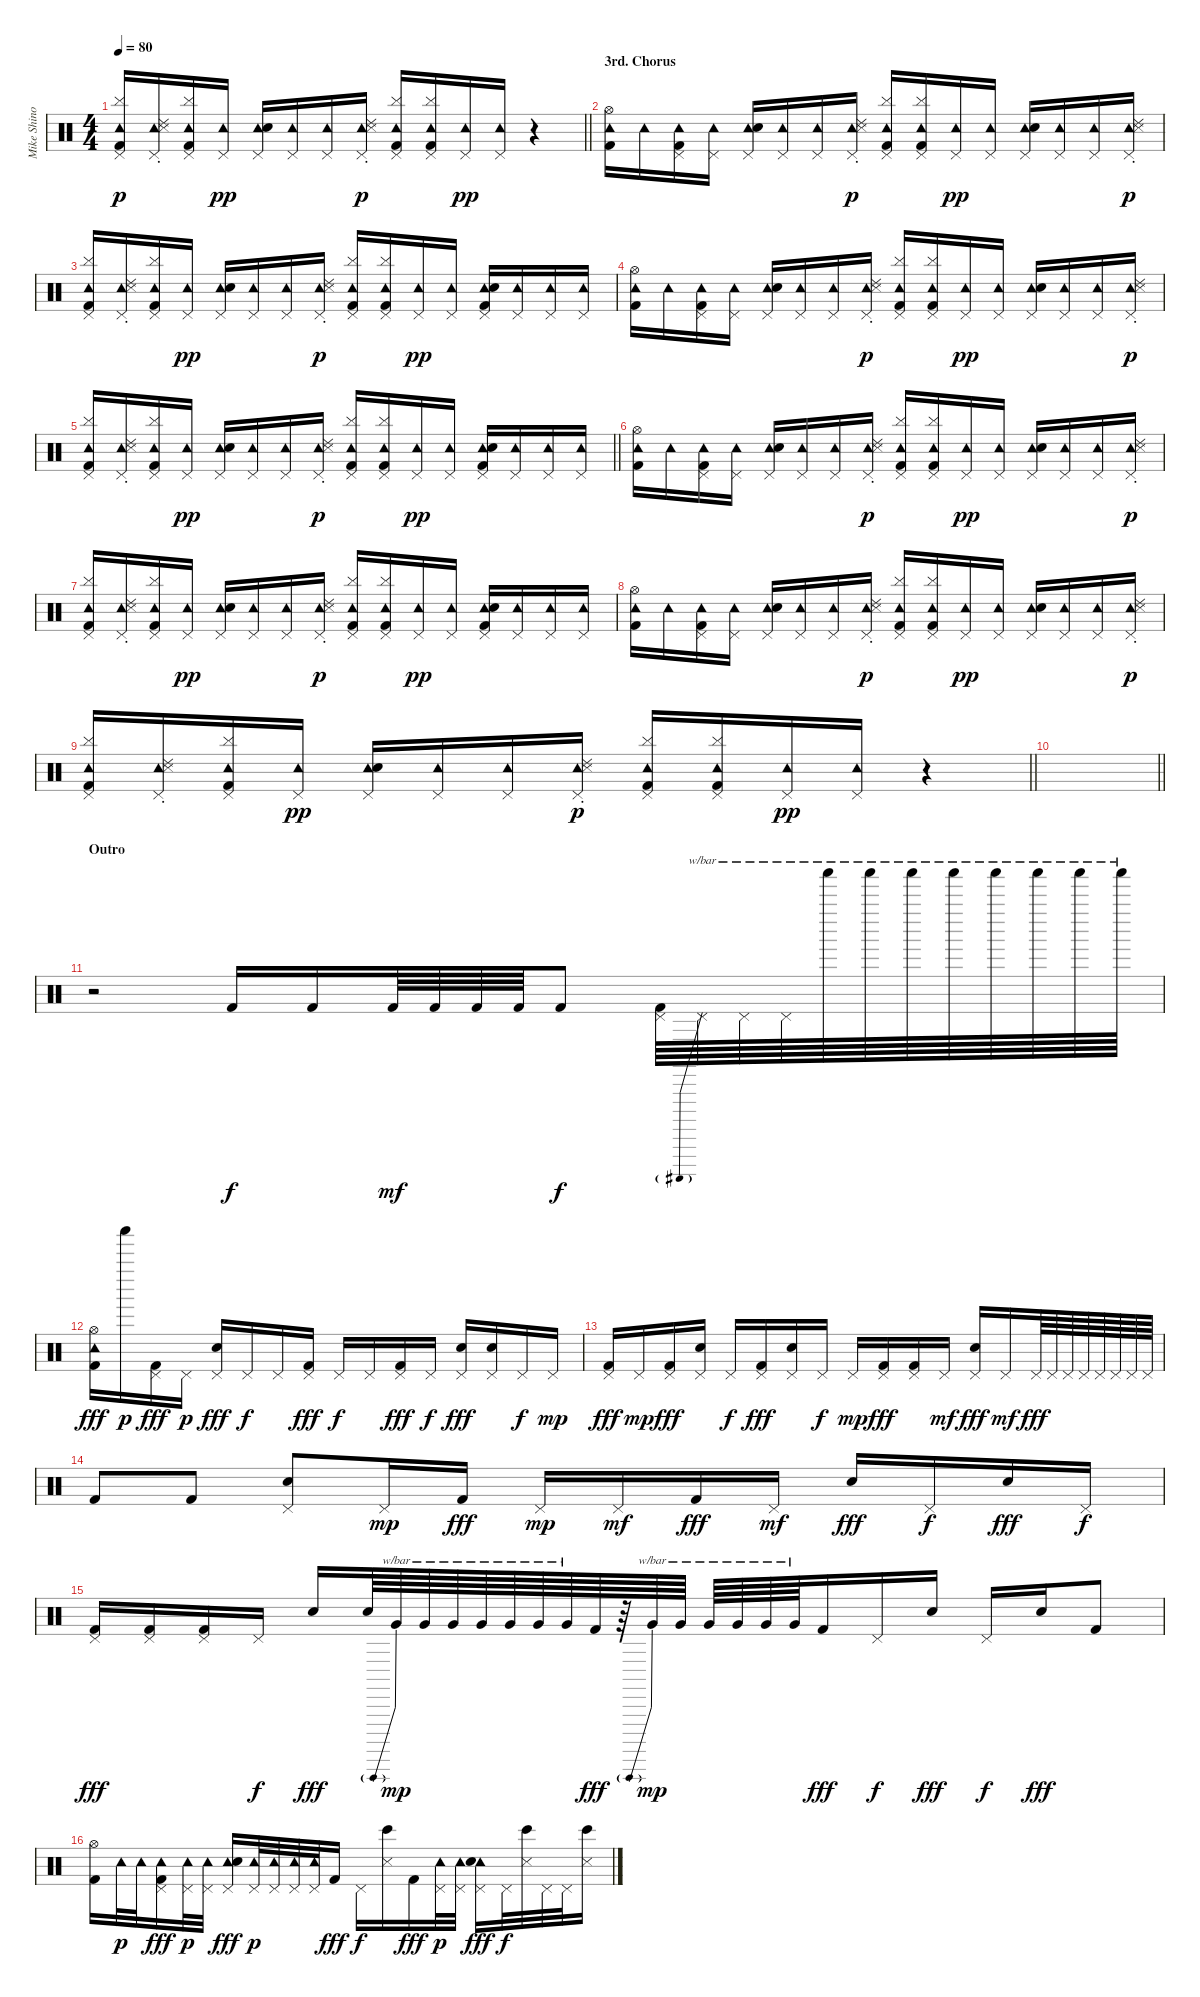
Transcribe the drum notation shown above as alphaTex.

\track ("Mike Shinoda - Percussion" "Mike Shino") {instrument percussion}
\staff {score}
\articulation defaults
\ts (4 4)
\tempo 80
\clef neutral
\barLineRight lightlight
\ks c
("Tambourine (hit)" "Pedal Hi-Hat (hit)" "Cymbal (hit)" "Kick (hit) 2").16{dy p} ("Tambourine (hit)" "Pedal Hi-Hat (hit)" "Snare (side stick) 3" "Ride (choke) 2").16 ("Tambourine (hit)" "Pedal Hi-Hat (hit)" "Cymbal (hit)" "Kick (hit) 2").16 ("Tambourine (hit)" "Pedal Hi-Hat (hit)").16{dy pp} ("Tambourine (hit)" "Pedal Hi-Hat (hit)" "Electric Snare (hit)").16 ("Tambourine (hit)" "Pedal Hi-Hat (hit)").16 ("Tambourine (hit)" "Pedal Hi-Hat (hit)").16 ("Tambourine (hit)" "Pedal Hi-Hat (hit)" "Snare (side stick) 3" "Ride (choke) 2").16{dy p} ("Tambourine (hit)" "Pedal Hi-Hat (hit)" "Cymbal (hit)" "Kick (hit) 2").16 ("Tambourine (hit)" "Pedal Hi-Hat (hit)" "Cymbal (hit)" "Kick (hit) 2").16 ("Tambourine (hit)" "Pedal Hi-Hat (hit)").16{dy pp} ("Tambourine (hit)" "Pedal Hi-Hat (hit)").16 r.4 |
\section ("" "3rd. Chorus")
("Tambourine (hit)" "Hi-Hat (open)" "Kick (hit) 2").16 "Tambourine (hit)".16 ("Tambourine (hit)" "Pedal Hi-Hat (hit)" "Kick (hit) 2").16 ("Tambourine (hit)" "Pedal Hi-Hat (hit)").16 ("Tambourine (hit)" "Pedal Hi-Hat (hit)" "Electric Snare (hit)").16 ("Tambourine (hit)" "Pedal Hi-Hat (hit)").16 ("Tambourine (hit)" "Pedal Hi-Hat (hit)").16 ("Tambourine (hit)" "Pedal Hi-Hat (hit)" "Snare (side stick) 3" "Ride (choke) 2").16{dy p} ("Tambourine (hit)" "Pedal Hi-Hat (hit)" "Cymbal (hit)" "Kick (hit) 2").16 ("Tambourine (hit)" "Pedal Hi-Hat (hit)" "Cymbal (hit)" "Kick (hit) 2").16 ("Tambourine (hit)" "Pedal Hi-Hat (hit)").16{dy pp} ("Tambourine (hit)" "Pedal Hi-Hat (hit)").16 ("Tambourine (hit)" "Pedal Hi-Hat (hit)" "Electric Snare (hit)").16 ("Tambourine (hit)" "Pedal Hi-Hat (hit)").16 ("Tambourine (hit)" "Pedal Hi-Hat (hit)").16 ("Tambourine (hit)" "Pedal Hi-Hat (hit)" "Snare (side stick) 3" "Ride (choke) 2").16{dy p} |
("Tambourine (hit)" "Pedal Hi-Hat (hit)" "Cymbal (hit)" "Kick (hit) 2").16 ("Tambourine (hit)" "Pedal Hi-Hat (hit)" "Snare (side stick) 3" "Ride (choke) 2").16 ("Tambourine (hit)" "Pedal Hi-Hat (hit)" "Cymbal (hit)" "Kick (hit) 2").16 ("Tambourine (hit)" "Pedal Hi-Hat (hit)").16{dy pp} ("Tambourine (hit)" "Pedal Hi-Hat (hit)" "Electric Snare (hit)").16 ("Tambourine (hit)" "Pedal Hi-Hat (hit)").16 ("Tambourine (hit)" "Pedal Hi-Hat (hit)").16 ("Tambourine (hit)" "Pedal Hi-Hat (hit)" "Snare (side stick) 3" "Ride (choke) 2").16{dy p} ("Tambourine (hit)" "Pedal Hi-Hat (hit)" "Cymbal (hit)" "Kick (hit) 2").16 ("Tambourine (hit)" "Pedal Hi-Hat (hit)" "Cymbal (hit)" "Kick (hit) 2").16 ("Tambourine (hit)" "Pedal Hi-Hat (hit)").16{dy pp} ("Tambourine (hit)" "Pedal Hi-Hat (hit)").16 ("Tambourine (hit)" "Pedal Hi-Hat (hit)" "Electric Snare (hit)" "Kick (hit) 2").16 ("Tambourine (hit)" "Pedal Hi-Hat (hit)").16 ("Tambourine (hit)" "Pedal Hi-Hat (hit)").16 ("Tambourine (hit)" "Pedal Hi-Hat (hit)").16 |
("Tambourine (hit)" "Hi-Hat (open)" "Kick (hit) 2").16 "Tambourine (hit)".16 ("Tambourine (hit)" "Pedal Hi-Hat (hit)" "Kick (hit) 2").16 ("Tambourine (hit)" "Pedal Hi-Hat (hit)").16 ("Tambourine (hit)" "Pedal Hi-Hat (hit)" "Electric Snare (hit)").16 ("Tambourine (hit)" "Pedal Hi-Hat (hit)").16 ("Tambourine (hit)" "Pedal Hi-Hat (hit)").16 ("Tambourine (hit)" "Pedal Hi-Hat (hit)" "Snare (side stick) 3" "Ride (choke) 2").16{dy p} ("Tambourine (hit)" "Pedal Hi-Hat (hit)" "Cymbal (hit)" "Kick (hit) 2").16 ("Tambourine (hit)" "Pedal Hi-Hat (hit)" "Cymbal (hit)" "Kick (hit) 2").16 ("Tambourine (hit)" "Pedal Hi-Hat (hit)").16{dy pp} ("Tambourine (hit)" "Pedal Hi-Hat (hit)").16 ("Tambourine (hit)" "Pedal Hi-Hat (hit)" "Electric Snare (hit)").16 ("Tambourine (hit)" "Pedal Hi-Hat (hit)").16 ("Tambourine (hit)" "Pedal Hi-Hat (hit)").16 ("Tambourine (hit)" "Pedal Hi-Hat (hit)" "Snare (side stick) 3" "Ride (choke) 2").16{dy p} |
\barLineRight lightlight
("Tambourine (hit)" "Pedal Hi-Hat (hit)" "Cymbal (hit)" "Kick (hit) 2").16 ("Tambourine (hit)" "Pedal Hi-Hat (hit)" "Snare (side stick) 3" "Ride (choke) 2").16 ("Tambourine (hit)" "Pedal Hi-Hat (hit)" "Cymbal (hit)" "Kick (hit) 2").16 ("Tambourine (hit)" "Pedal Hi-Hat (hit)").16{dy pp} ("Tambourine (hit)" "Pedal Hi-Hat (hit)" "Electric Snare (hit)").16 ("Tambourine (hit)" "Pedal Hi-Hat (hit)").16 ("Tambourine (hit)" "Pedal Hi-Hat (hit)").16 ("Tambourine (hit)" "Pedal Hi-Hat (hit)" "Snare (side stick) 3" "Ride (choke) 2").16{dy p} ("Tambourine (hit)" "Pedal Hi-Hat (hit)" "Cymbal (hit)" "Kick (hit) 2").16 ("Tambourine (hit)" "Pedal Hi-Hat (hit)" "Cymbal (hit)" "Kick (hit) 2").16 ("Tambourine (hit)" "Pedal Hi-Hat (hit)").16{dy pp} ("Tambourine (hit)" "Pedal Hi-Hat (hit)").16 ("Tambourine (hit)" "Pedal Hi-Hat (hit)" "Electric Snare (hit)" "Kick (hit) 2").16 ("Tambourine (hit)" "Pedal Hi-Hat (hit)").16 ("Tambourine (hit)" "Pedal Hi-Hat (hit)").16 ("Tambourine (hit)" "Pedal Hi-Hat (hit)").16 |
("Tambourine (hit)" "Hi-Hat (open)" "Kick (hit) 2").16 "Tambourine (hit)".16 ("Tambourine (hit)" "Pedal Hi-Hat (hit)" "Kick (hit) 2").16 ("Tambourine (hit)" "Pedal Hi-Hat (hit)").16 ("Tambourine (hit)" "Pedal Hi-Hat (hit)" "Electric Snare (hit)").16 ("Tambourine (hit)" "Pedal Hi-Hat (hit)").16 ("Tambourine (hit)" "Pedal Hi-Hat (hit)").16 ("Tambourine (hit)" "Pedal Hi-Hat (hit)" "Snare (side stick) 3" "Ride (choke) 2").16{dy p} ("Tambourine (hit)" "Pedal Hi-Hat (hit)" "Cymbal (hit)" "Kick (hit) 2").16 ("Tambourine (hit)" "Pedal Hi-Hat (hit)" "Cymbal (hit)" "Kick (hit) 2").16 ("Tambourine (hit)" "Pedal Hi-Hat (hit)").16{dy pp} ("Tambourine (hit)" "Pedal Hi-Hat (hit)").16 ("Tambourine (hit)" "Pedal Hi-Hat (hit)" "Electric Snare (hit)").16 ("Tambourine (hit)" "Pedal Hi-Hat (hit)").16 ("Tambourine (hit)" "Pedal Hi-Hat (hit)").16 ("Tambourine (hit)" "Pedal Hi-Hat (hit)" "Snare (side stick) 3" "Ride (choke) 2").16{dy p} |
("Tambourine (hit)" "Pedal Hi-Hat (hit)" "Cymbal (hit)" "Kick (hit) 2").16 ("Tambourine (hit)" "Pedal Hi-Hat (hit)" "Snare (side stick) 3" "Ride (choke) 2").16 ("Tambourine (hit)" "Pedal Hi-Hat (hit)" "Cymbal (hit)" "Kick (hit) 2").16 ("Tambourine (hit)" "Pedal Hi-Hat (hit)").16{dy pp} ("Tambourine (hit)" "Pedal Hi-Hat (hit)" "Electric Snare (hit)").16 ("Tambourine (hit)" "Pedal Hi-Hat (hit)").16 ("Tambourine (hit)" "Pedal Hi-Hat (hit)").16 ("Tambourine (hit)" "Pedal Hi-Hat (hit)" "Snare (side stick) 3" "Ride (choke) 2").16{dy p} ("Tambourine (hit)" "Pedal Hi-Hat (hit)" "Cymbal (hit)" "Kick (hit) 2").16 ("Tambourine (hit)" "Pedal Hi-Hat (hit)" "Cymbal (hit)" "Kick (hit) 2").16 ("Tambourine (hit)" "Pedal Hi-Hat (hit)").16{dy pp} ("Tambourine (hit)" "Pedal Hi-Hat (hit)").16 ("Tambourine (hit)" "Pedal Hi-Hat (hit)" "Electric Snare (hit)" "Kick (hit) 2").16 ("Tambourine (hit)" "Pedal Hi-Hat (hit)").16 ("Tambourine (hit)" "Pedal Hi-Hat (hit)").16 ("Tambourine (hit)" "Pedal Hi-Hat (hit)").16 |
("Tambourine (hit)" "Hi-Hat (open)" "Kick (hit) 2").16 "Tambourine (hit)".16 ("Tambourine (hit)" "Pedal Hi-Hat (hit)" "Kick (hit) 2").16 ("Tambourine (hit)" "Pedal Hi-Hat (hit)").16 ("Tambourine (hit)" "Pedal Hi-Hat (hit)" "Electric Snare (hit)").16 ("Tambourine (hit)" "Pedal Hi-Hat (hit)").16 ("Tambourine (hit)" "Pedal Hi-Hat (hit)").16 ("Tambourine (hit)" "Pedal Hi-Hat (hit)" "Snare (side stick) 3" "Ride (choke) 2").16{dy p} ("Tambourine (hit)" "Pedal Hi-Hat (hit)" "Cymbal (hit)" "Kick (hit) 2").16 ("Tambourine (hit)" "Pedal Hi-Hat (hit)" "Cymbal (hit)" "Kick (hit) 2").16 ("Tambourine (hit)" "Pedal Hi-Hat (hit)").16{dy pp} ("Tambourine (hit)" "Pedal Hi-Hat (hit)").16 ("Tambourine (hit)" "Pedal Hi-Hat (hit)" "Electric Snare (hit)").16 ("Tambourine (hit)" "Pedal Hi-Hat (hit)").16 ("Tambourine (hit)" "Pedal Hi-Hat (hit)").16 ("Tambourine (hit)" "Pedal Hi-Hat (hit)" "Snare (side stick) 3" "Ride (choke) 2").16{dy p} |
\barLineRight lightlight
("Tambourine (hit)" "Pedal Hi-Hat (hit)" "Cymbal (hit)" "Kick (hit) 2").16 ("Tambourine (hit)" "Pedal Hi-Hat (hit)" "Snare (side stick) 3" "Ride (choke) 2").16 ("Tambourine (hit)" "Pedal Hi-Hat (hit)" "Cymbal (hit)" "Kick (hit) 2").16 ("Tambourine (hit)" "Pedal Hi-Hat (hit)").16{dy pp} ("Tambourine (hit)" "Pedal Hi-Hat (hit)" "Electric Snare (hit)").16 ("Tambourine (hit)" "Pedal Hi-Hat (hit)").16 ("Tambourine (hit)" "Pedal Hi-Hat (hit)").16 ("Tambourine (hit)" "Pedal Hi-Hat (hit)" "Snare (side stick) 3" "Ride (choke) 2").16{dy p} ("Tambourine (hit)" "Pedal Hi-Hat (hit)" "Cymbal (hit)" "Kick (hit) 2").16 ("Tambourine (hit)" "Pedal Hi-Hat (hit)" "Cymbal (hit)" "Kick (hit) 2").16 ("Tambourine (hit)" "Pedal Hi-Hat (hit)").16{dy pp} ("Tambourine (hit)" "Pedal Hi-Hat (hit)").16 r.4 |
\barLineRight lightlight
|
\section ("" "Outro")
r.2 "Kick (hit) 2".16{dy f} "Kick (hit) 2".16 "Kick (hit) 2".64{dy mf} "Kick (hit) 2".64 "Kick (hit) 2".64 "Kick (hit) 2".64 "Kick (hit) 2".8{dy f} ("Pedal Hi-Hat (hit)" "Kick (hit) 2").64 "Pedal Hi-Hat (hit)".64{tbe (predive default 0 12 60 12)} "Pedal Hi-Hat (hit)".64{tbe (hold default 0 12 60 12)} "Pedal Hi-Hat (hit)".64{tbe (hold default 0 12 60 12)} "Shaker (hit)".64{tbe (hold default 0 12 60 12)} "Shaker (hit)".64{tbe (hold default 0 12 60 12)} "Shaker (hit)".64{tbe (hold default 0 12 60 12)} "Shaker (hit)".64{tbe (hold default 0 12 60 12)} "Shaker (hit)".64{tbe (hold default 0 12 60 12)} "Shaker (hit)".64{tbe (hold default 0 12 60 12)} "Shaker (hit)".64{tbe (hold default 0 12 60 12)} "Shaker (hit)".64{tbe (hold default 0 12 60 12)} |
("Tambourine (hit)" "Hi-Hat (open)" "Kick (hit) 2").16{dy fff} "Shaker (hit)".16{dy p} ("Pedal Hi-Hat (hit)" "Kick (hit) 2").16{dy fff} "Pedal Hi-Hat (hit)".16{dy p} ("Pedal Hi-Hat (hit)" "Electric Snare (hit)").16{dy fff} "Pedal Hi-Hat (hit)".16{dy f} "Pedal Hi-Hat (hit)".16 ("Pedal Hi-Hat (hit)" "Kick (hit) 2").16{dy fff} "Pedal Hi-Hat (hit)".16{dy f} "Pedal Hi-Hat (hit)".16 ("Pedal Hi-Hat (hit)" "Kick (hit) 2").16{dy fff} "Pedal Hi-Hat (hit)".16{dy f} ("Pedal Hi-Hat (hit)" "Electric Snare (hit)").16{dy fff} ("Pedal Hi-Hat (hit)" "Electric Snare (hit)").16 "Pedal Hi-Hat (hit)".16{dy f} "Pedal Hi-Hat (hit)".16{dy mp} |
("Pedal Hi-Hat (hit)" "Kick (hit) 2").16{dy fff} "Pedal Hi-Hat (hit)".16{dy mp} ("Pedal Hi-Hat (hit)" "Kick (hit) 2").16{dy fff} ("Pedal Hi-Hat (hit)" "Electric Snare (hit)").16 "Pedal Hi-Hat (hit)".16{dy f} ("Pedal Hi-Hat (hit)" "Kick (hit) 2").16{dy fff} ("Pedal Hi-Hat (hit)" "Electric Snare (hit)").16 "Pedal Hi-Hat (hit)".16{dy f} "Pedal Hi-Hat (hit)".16{dy mp} ("Pedal Hi-Hat (hit)" "Kick (hit) 2").16{dy fff} ("Pedal Hi-Hat (hit)" "Kick (hit) 2").16 "Pedal Hi-Hat (hit)".16{dy mf} ("Pedal Hi-Hat (hit)" "Electric Snare (hit)").16{dy fff} "Pedal Hi-Hat (hit)".16{dy mf} "Pedal Hi-Hat (hit)".64{dy fff} "Pedal Hi-Hat (hit)".64 "Pedal Hi-Hat (hit)".64 "Pedal Hi-Hat (hit)".64 "Pedal Hi-Hat (hit)".64 "Pedal Hi-Hat (hit)".64 "Pedal Hi-Hat (hit)".64 "Pedal Hi-Hat (hit)".64 |
"Kick (hit) 2".8 "Kick (hit) 2".8 ("Pedal Hi-Hat (hit)" "Electric Snare (hit)").8 "Pedal Hi-Hat (hit)".16{dy mp} "Kick (hit) 2".16{dy fff} "Pedal Hi-Hat (hit)".16{dy mp} "Pedal Hi-Hat (hit)".16{dy mf} "Kick (hit) 2".16{dy fff} "Pedal Hi-Hat (hit)".16{dy mf} "Electric Snare (hit)".16{dy fff} "Pedal Hi-Hat (hit)".16{dy f} "Electric Snare (hit)".16{dy fff} "Pedal Hi-Hat (hit)".16{dy f} |
("Pedal Hi-Hat (hit)" "Kick (hit) 2").16{dy fff} ("Pedal Hi-Hat (hit)" "Kick (hit) 2").16 ("Pedal Hi-Hat (hit)" "Kick (hit) 2").16 "Pedal Hi-Hat (hit)".16{dy f} "Electric Snare (hit)".16{dy fff} "Electric Snare (hit)".64 "Very Low Tom (hit)".64{tbe (predive default 0 -4 60 -4) dy mp} "Very Low Tom (hit)".64{tbe (hold default 0 -4 60 -4)} "Very Low Tom (hit)".64{tbe (hold default 0 -4 60 -4)} "Very Low Tom (hit)".64{tbe (hold default 0 -4 60 -4)} "Very Low Tom (hit)".64{tbe (hold default 0 -4 60 -4)} "Very Low Tom (hit)".64{tbe (hold default 0 -4 60 -4)} "Very Low Tom (hit)".64{tbe (hold default 0 -4 60 -4)} "Kick (hit) 2".64{dy fff} r.64 "Very Low Tom (hit)".64{tbe (predive default 0 10 60 10) dy mp} "Very Low Tom (hit)".64{tbe (hold default 0 10 60 10)} "Very Low Tom (hit)".64{tbe (hold default 0 10 60 10)} "Very Low Tom (hit)".64{tbe (hold default 0 10 60 10)} "Very Low Tom (hit)".64{tbe (hold default 0 10 60 10)} "Very Low Tom (hit)".64{tbe (hold default 0 10 60 10)} "Kick (hit) 2".16{dy fff} "Pedal Hi-Hat (hit)".16{dy f} "Electric Snare (hit)".16{dy fff} "Pedal Hi-Hat (hit)".16{dy f} "Electric Snare (hit)".16{dy fff} "Kick (hit) 2".8 |
("Hi-Hat (open)" "Kick (hit) 2").16 "Tambourine (hit)".32{dy p} "Tambourine (hit)".32 ("Tambourine (hit)" "Pedal Hi-Hat (hit)" "Kick (hit) 2").16{dy fff} ("Tambourine (hit)" "Pedal Hi-Hat (hit)").32{dy p} ("Tambourine (hit)" "Pedal Hi-Hat (hit)").32 ("Tambourine (hit)" "Pedal Hi-Hat (hit)" "Electric Snare (hit)").16{dy fff} ("Tambourine (hit)" "Pedal Hi-Hat (hit)").32{dy p} ("Tambourine (hit)" "Pedal Hi-Hat (hit)").32 ("Tambourine (hit)" "Pedal Hi-Hat (hit)").32 ("Tambourine (hit)" "Pedal Hi-Hat (hit)").32 "Kick (hit) 2".16{dy fff} "Pedal Hi-Hat (hit)".16{dy f} ("Snare (side stick) 3" "Bongo High (hit)").16 "Kick (hit) 2".16{dy fff} ("Tambourine (hit)" "Pedal Hi-Hat (hit)").32{dy p} ("Tambourine (hit)" "Pedal Hi-Hat (hit)").32 ("Tambourine (hit)" "Pedal Hi-Hat (hit)" "Electric Snare (hit)").16{dy fff} "Pedal Hi-Hat (hit)".32{dy f} ("Snare (side stick) 3" "Bongo High (hit)").32{balance 0} "Pedal Hi-Hat (hit)".32{balance 8} "Pedal Hi-Hat (hit)".32 ("Snare (side stick) 3" "Bongo High (hit)").16{balance 16}
